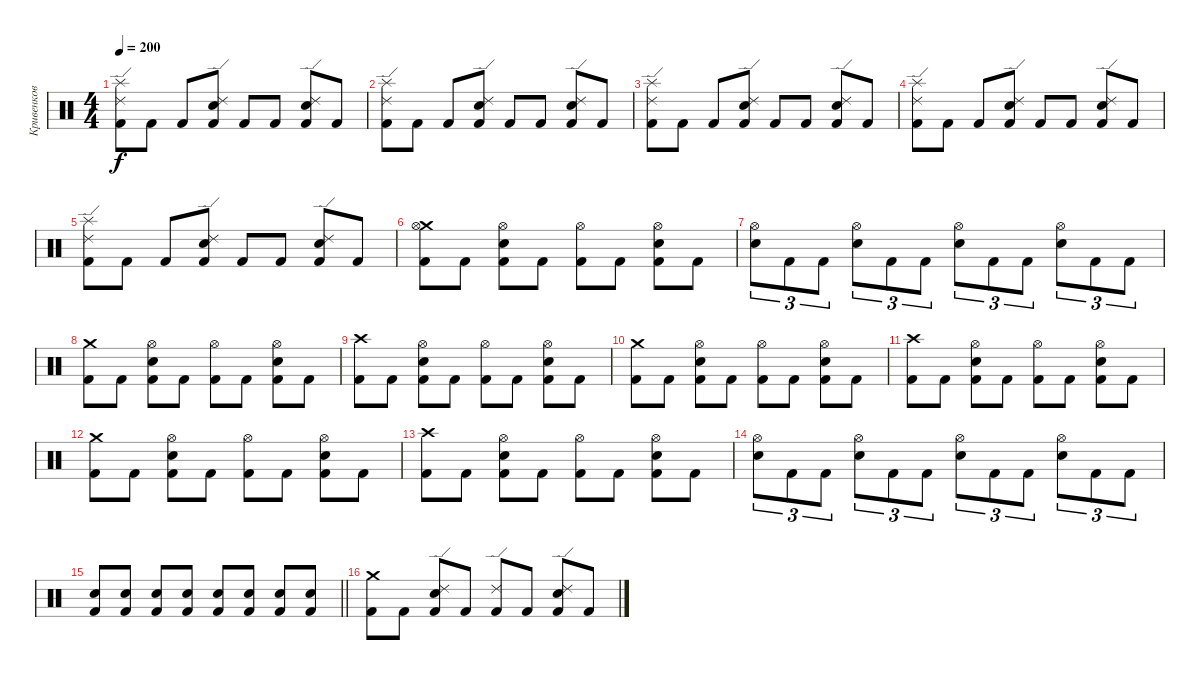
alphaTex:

\track ("Кривенков" "Кривенков") {instrument percussion}
\staff {score}
\articulation defaults
\ts (4 4)
\tempo 200
\clef neutral
\ks c
("Splash (hit)" "Ride (edge) 2" "Kick (hit) 2").8{dy f} "Kick (hit) 2".8 "Kick (hit) 2".8 ("Ride (edge) 2" "Electric Snare (hit)" "Kick (hit) 2").8 "Kick (hit) 2".8 "Kick (hit) 2".8 ("Ride (edge) 2" "Electric Snare (hit)" "Kick (hit) 2").8 "Kick (hit) 2".8 |
("Splash (hit)" "Ride (edge) 2" "Kick (hit) 2").8 "Kick (hit) 2".8 "Kick (hit) 2".8 ("Ride (edge) 2" "Electric Snare (hit)" "Kick (hit) 2").8 "Kick (hit) 2".8 "Kick (hit) 2".8 ("Ride (edge) 2" "Electric Snare (hit)" "Kick (hit) 2").8 "Kick (hit) 2".8 |
("Splash (hit)" "Ride (edge) 2" "Kick (hit) 2").8 "Kick (hit) 2".8 "Kick (hit) 2".8 ("Ride (edge) 2" "Electric Snare (hit)" "Kick (hit) 2").8 "Kick (hit) 2".8 "Kick (hit) 2".8 ("Ride (edge) 2" "Electric Snare (hit)" "Kick (hit) 2").8 "Kick (hit) 2".8 |
("Splash (hit)" "Ride (edge) 2" "Kick (hit) 2").8 "Kick (hit) 2".8 "Kick (hit) 2".8 ("Ride (edge) 2" "Electric Snare (hit)" "Kick (hit) 2").8 "Kick (hit) 2".8 "Kick (hit) 2".8 ("Ride (edge) 2" "Electric Snare (hit)" "Kick (hit) 2").8 "Kick (hit) 2".8 |
("Splash (hit)" "Ride (edge) 2" "Kick (hit) 2").8 "Kick (hit) 2".8 "Kick (hit) 2".8 ("Ride (edge) 2" "Electric Snare (hit)" "Kick (hit) 2").8 "Kick (hit) 2".8 "Kick (hit) 2".8 ("Ride (edge) 2" "Electric Snare (hit)" "Kick (hit) 2").8 "Kick (hit) 2".8 |
("Crash medium (hit)" "Hi-Hat (open)" "Kick (hit) 2").8 "Kick (hit) 2".8 ("Hi-Hat (open)" "Electric Snare (hit)" "Kick (hit) 2").8 "Kick (hit) 2".8 ("Hi-Hat (open)" "Kick (hit) 2").8 "Kick (hit) 2".8 ("Hi-Hat (open)" "Electric Snare (hit)" "Kick (hit) 2").8 "Kick (hit) 2".8 |
("Hi-Hat (open)" "Electric Snare (hit)").8{tu (3 2)} "Kick (hit) 2".8{tu (3 2)} "Kick (hit) 2".8{tu (3 2)} ("Hi-Hat (open)" "Electric Snare (hit)").8{tu (3 2)} "Kick (hit) 2".8{tu (3 2)} "Kick (hit) 2".8{tu (3 2)} ("Hi-Hat (open)" "Electric Snare (hit)").8{tu (3 2)} "Kick (hit) 2".8{tu (3 2)} "Kick (hit) 2".8{tu (3 2)} ("Hi-Hat (open)" "Electric Snare (hit)").8{tu (3 2)} "Kick (hit) 2".8{tu (3 2)} "Kick (hit) 2".8{tu (3 2)} |
("Crash medium (hit)" "Kick (hit) 2").8 "Kick (hit) 2".8 ("Hi-Hat (open)" "Electric Snare (hit)" "Kick (hit) 2").8 "Kick (hit) 2".8 ("Hi-Hat (open)" "Kick (hit) 2").8 "Kick (hit) 2".8 ("Hi-Hat (open)" "Electric Snare (hit)" "Kick (hit) 2").8 "Kick (hit) 2".8 |
("Crash high (hit)" "Kick (hit) 2").8 "Kick (hit) 2".8 ("Hi-Hat (open)" "Electric Snare (hit)" "Kick (hit) 2").8 "Kick (hit) 2".8 ("Hi-Hat (open)" "Kick (hit) 2").8 "Kick (hit) 2".8 ("Hi-Hat (open)" "Electric Snare (hit)" "Kick (hit) 2").8 "Kick (hit) 2".8 |
("Crash medium (hit)" "Kick (hit) 2").8 "Kick (hit) 2".8 ("Hi-Hat (open)" "Electric Snare (hit)" "Kick (hit) 2").8 "Kick (hit) 2".8 ("Hi-Hat (open)" "Kick (hit) 2").8 "Kick (hit) 2".8 ("Hi-Hat (open)" "Electric Snare (hit)" "Kick (hit) 2").8 "Kick (hit) 2".8 |
("Crash high (hit)" "Kick (hit) 2").8 "Kick (hit) 2".8 ("Hi-Hat (open)" "Electric Snare (hit)" "Kick (hit) 2").8 "Kick (hit) 2".8 ("Hi-Hat (open)" "Kick (hit) 2").8 "Kick (hit) 2".8 ("Hi-Hat (open)" "Electric Snare (hit)" "Kick (hit) 2").8 "Kick (hit) 2".8 |
("Crash medium (hit)" "Kick (hit) 2").8 "Kick (hit) 2".8 ("Hi-Hat (open)" "Electric Snare (hit)" "Kick (hit) 2").8 "Kick (hit) 2".8 ("Hi-Hat (open)" "Kick (hit) 2").8 "Kick (hit) 2".8 ("Hi-Hat (open)" "Electric Snare (hit)" "Kick (hit) 2").8 "Kick (hit) 2".8 |
("Crash high (hit)" "Kick (hit) 2").8 "Kick (hit) 2".8 ("Hi-Hat (open)" "Electric Snare (hit)" "Kick (hit) 2").8 "Kick (hit) 2".8 ("Hi-Hat (open)" "Kick (hit) 2").8 "Kick (hit) 2".8 ("Hi-Hat (open)" "Electric Snare (hit)" "Kick (hit) 2").8 "Kick (hit) 2".8 |
("Hi-Hat (open)" "Electric Snare (hit)").8{tu (3 2)} "Kick (hit) 2".8{tu (3 2)} "Kick (hit) 2".8{tu (3 2)} ("Hi-Hat (open)" "Electric Snare (hit)").8{tu (3 2)} "Kick (hit) 2".8{tu (3 2)} "Kick (hit) 2".8{tu (3 2)} ("Hi-Hat (open)" "Electric Snare (hit)").8{tu (3 2)} "Kick (hit) 2".8{tu (3 2)} "Kick (hit) 2".8{tu (3 2)} ("Hi-Hat (open)" "Electric Snare (hit)").8{tu (3 2)} "Kick (hit) 2".8{tu (3 2)} "Kick (hit) 2".8{tu (3 2)} |
\barLineRight lightlight
("Electric Snare (hit)" "Kick (hit) 2").8 ("Electric Snare (hit)" "Kick (hit) 2").8 ("Electric Snare (hit)" "Kick (hit) 2").8 ("Electric Snare (hit)" "Kick (hit) 2").8 ("Electric Snare (hit)" "Kick (hit) 2").8 ("Electric Snare (hit)" "Kick (hit) 2").8 ("Electric Snare (hit)" "Kick (hit) 2").8 ("Electric Snare (hit)" "Kick (hit) 2").8 |
("Crash medium (hit)" "Kick (hit) 2").8 "Kick (hit) 2".8 ("Ride (edge) 2" "Electric Snare (hit)" "Kick (hit) 2").8 "Kick (hit) 2".8 ("Ride (edge) 2" "Kick (hit) 2").8 "Kick (hit) 2".8 ("Ride (edge) 2" "Electric Snare (hit)" "Kick (hit) 2").8 "Kick (hit) 2".8
